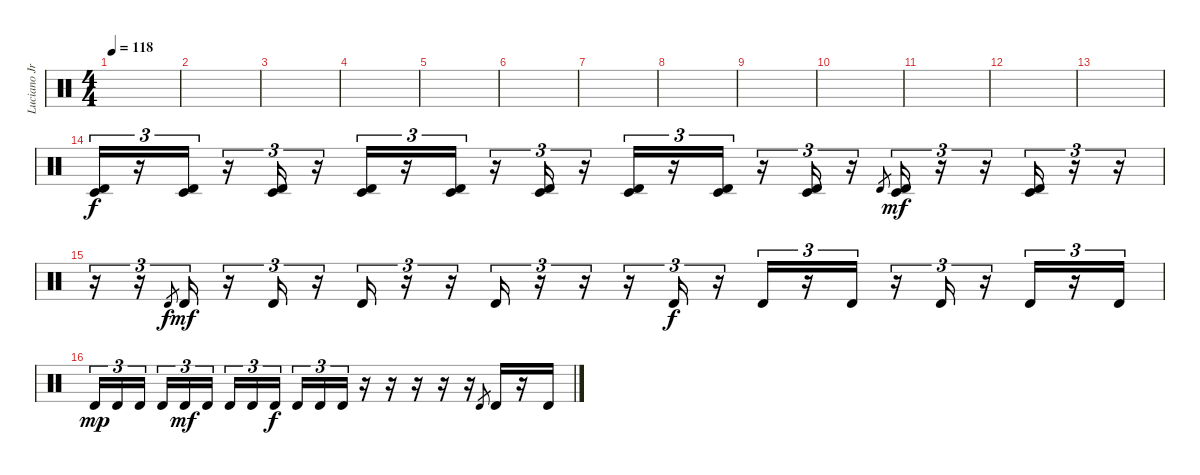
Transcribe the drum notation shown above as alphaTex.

\track ("Luciano Jr." "Luciano Jr") {instrument percussion}
\staff {score}
\articulation defaults
\ts (4 4)
\tempo 118
\clef neutral
\ks c
|
|
|
|
|
|
|
|
|
|
|
|
|
("Timbale high (hit)" "Timbale low (hit)").16{tu (3 2)} r.16{tu (3 2)} ("Timbale high (hit)" "Timbale low (hit)").16{tu (3 2)} r.16{tu (3 2)} ("Timbale high (hit)" "Timbale low (hit)").16{tu (3 2)} r.16{tu (3 2)} ("Timbale high (hit)" "Timbale low (hit)").16{tu (3 2)} r.16{tu (3 2)} ("Timbale high (hit)" "Timbale low (hit)").16{tu (3 2)} r.16{tu (3 2)} ("Timbale high (hit)" "Timbale low (hit)").16{tu (3 2)} r.16{tu (3 2)} ("Timbale high (hit)" "Timbale low (hit)").16{tu (3 2)} r.16{tu (3 2)} ("Timbale high (hit)" "Timbale low (hit)").16{tu (3 2)} r.16{tu (3 2)} ("Timbale high (hit)" "Timbale low (hit)").16{tu (3 2)} r.16{tu (3 2)} "Timbale high (hit)".8{gr dy f} ("Timbale high (hit)" "Timbale low (hit)").16{tu (3 2) dy mf} r.16{tu (3 2)} r.16{tu (3 2)} ("Timbale high (hit)" "Timbale low (hit)").16{tu (3 2)} r.16{tu (3 2)} r.16{tu (3 2)} |
r.16{tu (3 2)} r.16{tu (3 2)} "Timbale high (hit)".8{gr dy f} "Timbale high (hit)".16{tu (3 2) dy mf} r.16{tu (3 2)} "Timbale high (hit)".16{tu (3 2)} r.16{tu (3 2)} "Timbale high (hit)".16{tu (3 2)} r.16{tu (3 2)} r.16{tu (3 2)} "Timbale high (hit)".16{tu (3 2)} r.16{tu (3 2)} r.16{tu (3 2)} r.16{tu (3 2)} "Timbale high (hit)".16{tu (3 2) dy f} r.16{tu (3 2)} "Timbale high (hit)".16{tu (3 2)} r.16{tu (3 2)} "Timbale high (hit)".16{tu (3 2)} r.16{tu (3 2)} "Timbale high (hit)".16{tu (3 2)} r.16{tu (3 2)} "Timbale high (hit)".16{tu (3 2)} r.16{tu (3 2)} "Timbale high (hit)".16{tu (3 2)} |
"Timbale high (hit)".16{tu (3 2) dy mp} "Timbale high (hit)".16{tu (3 2)} "Timbale high (hit)".16{tu (3 2) beam splitsecondary} "Timbale high (hit)".16{tu (3 2)} "Timbale high (hit)".16{tu (3 2) dy mf} "Timbale high (hit)".16{tu (3 2)} "Timbale high (hit)".16{tu (3 2)} "Timbale high (hit)".16{tu (3 2)} "Timbale high (hit)".16{tu (3 2) dy f beam splitsecondary} "Timbale high (hit)".16{tu (3 2)} "Timbale high (hit)".16{tu (3 2)} "Timbale high (hit)".16{tu (3 2)} r.16 r.16 r.16 r.16 r.16 "Timbale high (hit)".8{gr} "Timbale high (hit)".16 r.16 "Timbale high (hit)".16
